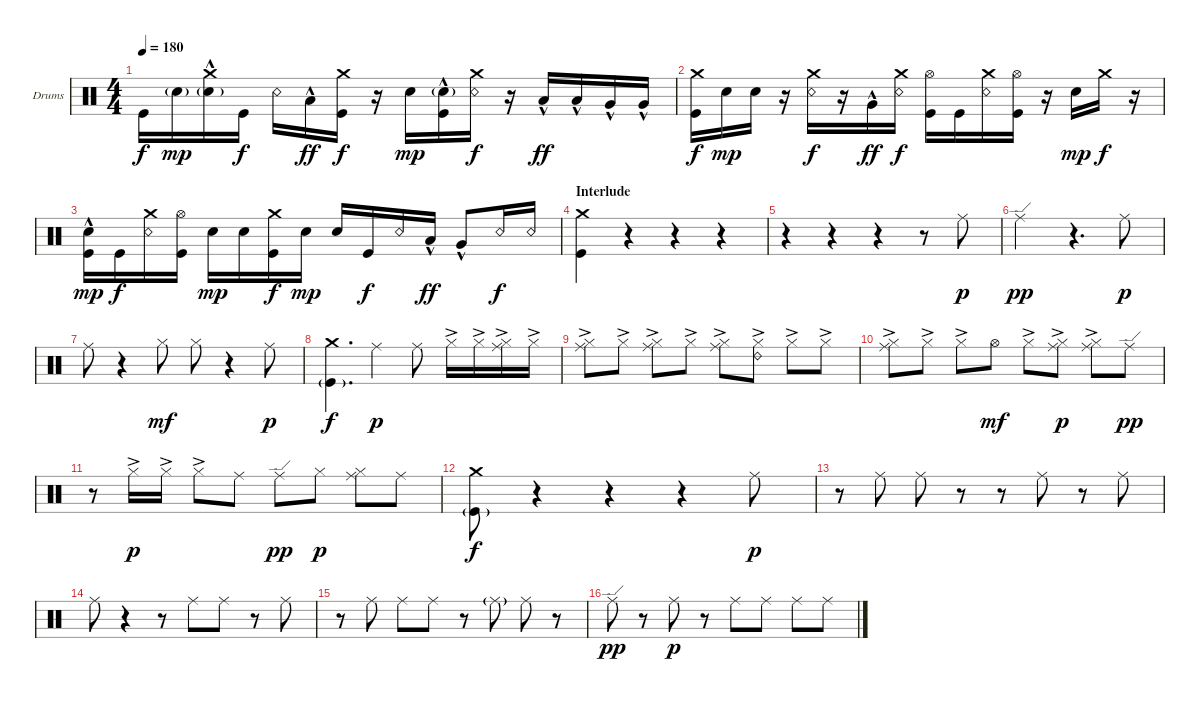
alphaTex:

\bracketExtendMode groupsimilarinstruments
\firstSystemTrackNameOrientation horizontal
\otherSystemsTrackNameOrientation horizontal
\track ("Drumkit" "Drums") {instrument percussion}
\staff {score}
\articulation defaults
\ts (4 4)
\tempo 180
\clef neutral
\ks c "Kick (hit)".16{dy f} "Snare (hit) 2"{g}.16{dy mp}
("Snare (hit) 2"{g} "Crash medium (hit)"{hac}).16 "Kick (hit)".16{dy f} "Snare (rim shot)".16 "Low Tom (hit)"{hac}.16{dy ff} ("Kick (hit)" "Crash medium (hit)").16{dy f} r.16 "Snare (hit) 2".16{dy mp} ("Kick (hit)"{hac} "Snare (hit) 2"{g}).16 ("Snare (rim shot)" "Crash medium (hit)").16{dy f} r.16 "Low Tom (hit)"{hac}.16{dy ff} "Low Tom (hit)"{hac}.16 "Very Low Tom (hit)"{hac}.16 "Very Low Tom (hit)"{hac}.16 |
("Kick (hit)" "Crash medium (hit)").16{dy f} "Snare (hit) 2".16{dy mp} "Snare (hit) 2".16 r.16 ("Snare (rim shot)" "Crash medium (hit)").16{dy f} r.16 "Very Low Tom (hit)"{hac}.16{dy ff} ("Snare (rim shot)" "Crash medium (hit)").16{dy f} ("Kick (hit)" "Hi-Hat (open)").16 "Kick (hit)".16 ("Snare (rim shot)" "Crash medium (hit)").16 ("Kick (hit)" "Hi-Hat (open)").16 r.16 "Snare (hit) 2".16{dy mp} "Crash medium (hit)".16{dy f} r.16 |
("Kick (hit)"{hac} "Snare (hit) 2").16{dy mp} "Kick (hit)".16{dy f} ("Snare (rim shot)" "Crash medium (hit)").16 ("Kick (hit)" "Hi-Hat (open)").16 "Snare (hit) 2".16{dy mp} "Snare (hit) 2".16 ("Kick (hit)" "Crash medium (hit)").16{dy f} "Snare (hit) 2".16{dy mp} "Snare (hit) 2".16 "Kick (hit)".16{dy f} "Snare (rim shot)".16 "Low Tom (hit)"{hac}.16{dy ff} "Very Low Tom (hit)"{hac}.8 "Snare (rim shot)".16{dy f} "Snare (rim shot)".16 |
\section ("" "Interlude")
("Kick (hit)" "Crash medium (hit)").4 r.4 r.4 r.4 |
r.4 r.4 r.4 r.8 "Ride (middle)".8{dy p} |
"Ride (edge)".2{dy pp} r.4{d} "Ride (middle)".8{dy p} |
"Ride (middle)".8 r.4 "Hi-Hat (closed)".8{dy mf} "Hi-Hat (closed)".8 r.4 "Ride (middle)".8{dy p} |
("Kick (hit)"{g} "Crash medium (hit)").4{d dy f} "Ride (middle)".4{dy p} "Ride (middle)".8 "Hi-Hat (closed)"{ac}.16 "Hi-Hat (closed)"{ac}.16 ("Ride (middle)" "Hi-Hat (closed)"{ac}).16 "Hi-Hat (closed)"{ac}.16 |
("Ride (middle)" "Hi-Hat (closed)"{ac}).8 "Hi-Hat (closed)"{ac}.8 ("Ride (middle)" "Hi-Hat (closed)"{ac}).8 "Hi-Hat (closed)"{ac}.8 ("Ride (middle)" "Hi-Hat (closed)"{ac}).8 ("Ride (bell) 2" "Hi-Hat (closed)"{ac}).8 "Hi-Hat (closed)"{ac}.8 "Hi-Hat (closed)"{ac}.8 |
("Hi-Hat (closed)"{ac} "Ride (middle)").8 "Hi-Hat (closed)"{ac}.8 "Hi-Hat (closed)"{ac}.8 "Hi-Hat (open)".8{dy mf} "Hi-Hat (closed)"{ac}.8 ("Ride (middle)" "Hi-Hat (closed)"{ac}).8{dy p} ("Ride (middle)" "Hi-Hat (closed)"{ac}).8 "Ride (edge)".8{dy pp} |
r.8 "Hi-Hat (closed)"{ac}.16{dy p} "Hi-Hat (closed)"{ac}.16 "Hi-Hat (closed)"{ac}.8 "Ride (middle)".8 "Ride (edge)".8{dy pp} "Hi-Hat (closed)".8{dy p} ("Ride (middle)" "Hi-Hat (closed)").8 "Ride (middle)".8 |
("Kick (hit)"{g} "Crash medium (hit)").8{dy f} r.4 r.4 r.4 "Ride (middle)".8{dy p} |
r.8 "Ride (middle)".8 "Ride (middle)".8 r.8 r.8 "Ride (middle)".8 r.8 "Ride (middle)".8 |
"Ride (middle)".8 r.4 r.8 "Ride (middle)".8 "Ride (middle)".8 r.8 "Ride (middle)".8 |
r.8 "Ride (middle)".8 "Ride (middle)".8 "Ride (middle)".8 r.8 "Ride (middle)"{g}.8 "Ride (middle)".8 r.8 |
"Ride (edge)".8{dy pp} r.8 "Ride (middle)".8{dy p} r.8 "Ride (middle)".8 "Ride (middle)".8 "Ride (middle)".8 "Ride (middle)".8
